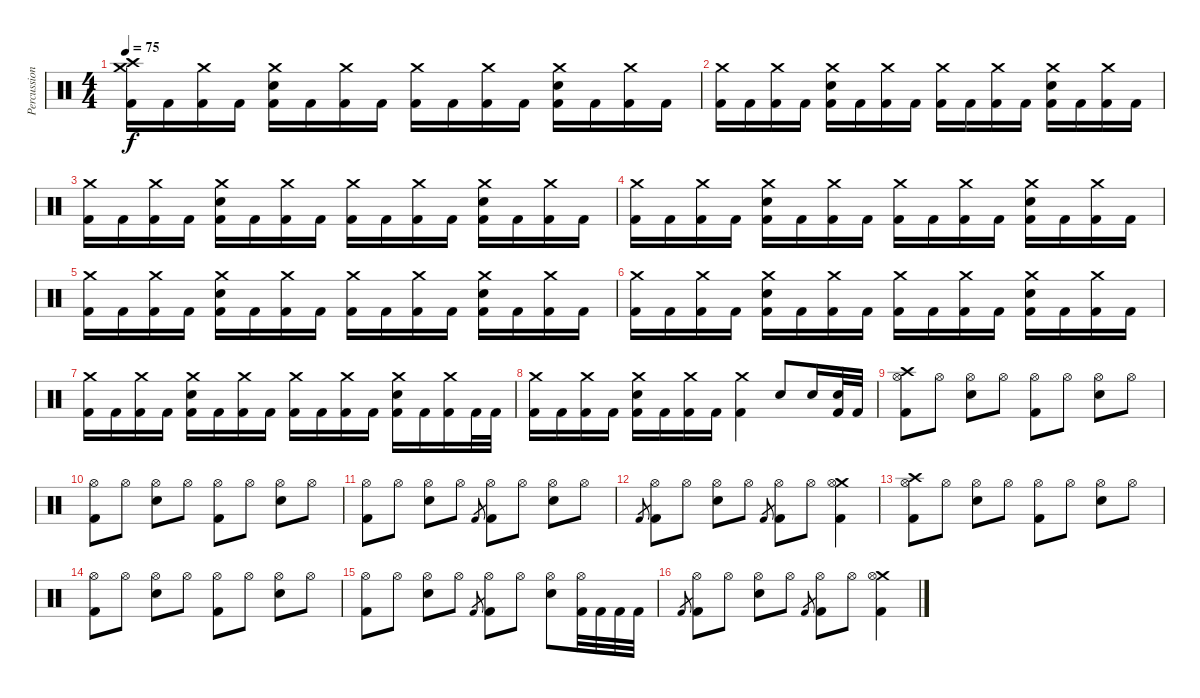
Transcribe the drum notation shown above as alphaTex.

\track ("Percussions" "Percussion") {instrument percussion}
\staff {score}
\articulation defaults
\ts (4 4)
\tempo 75
\clef neutral
\ks c
("Crash medium (hit)" "Crash high (hit)" "Kick (hit) 2").16{dy f} "Kick (hit) 2".16 ("Crash medium (hit)" "Kick (hit) 2").16 "Kick (hit) 2".16 ("Crash medium (hit)" "Snare (hit) 2" "Kick (hit) 2").16 "Kick (hit) 2".16 ("Crash medium (hit)" "Kick (hit) 2").16 "Kick (hit) 2".16 ("Crash medium (hit)" "Kick (hit) 2").16 "Kick (hit) 2".16 ("Crash medium (hit)" "Kick (hit) 2").16 "Kick (hit) 2".16 ("Crash medium (hit)" "Snare (hit) 2" "Kick (hit) 2").16 "Kick (hit) 2".16 ("Crash medium (hit)" "Kick (hit) 2").16 "Kick (hit) 2".16 |
("Crash medium (hit)" "Kick (hit) 2").16 "Kick (hit) 2".16 ("Crash medium (hit)" "Kick (hit) 2").16 "Kick (hit) 2".16 ("Crash medium (hit)" "Snare (hit) 2" "Kick (hit) 2").16 "Kick (hit) 2".16 ("Crash medium (hit)" "Kick (hit) 2").16 "Kick (hit) 2".16 ("Crash medium (hit)" "Kick (hit) 2").16 "Kick (hit) 2".16 ("Crash medium (hit)" "Kick (hit) 2").16 "Kick (hit) 2".16 ("Crash medium (hit)" "Snare (hit) 2" "Kick (hit) 2").16 "Kick (hit) 2".16 ("Crash medium (hit)" "Kick (hit) 2").16 "Kick (hit) 2".16 |
("Crash medium (hit)" "Kick (hit) 2").16 "Kick (hit) 2".16 ("Crash medium (hit)" "Kick (hit) 2").16 "Kick (hit) 2".16 ("Crash medium (hit)" "Snare (hit) 2" "Kick (hit) 2").16 "Kick (hit) 2".16 ("Crash medium (hit)" "Kick (hit) 2").16 "Kick (hit) 2".16 ("Crash medium (hit)" "Kick (hit) 2").16 "Kick (hit) 2".16 ("Crash medium (hit)" "Kick (hit) 2").16 "Kick (hit) 2".16 ("Crash medium (hit)" "Snare (hit) 2" "Kick (hit) 2").16 "Kick (hit) 2".16 ("Crash medium (hit)" "Kick (hit) 2").16 "Kick (hit) 2".16 |
("Crash medium (hit)" "Kick (hit) 2").16 "Kick (hit) 2".16 ("Crash medium (hit)" "Kick (hit) 2").16 "Kick (hit) 2".16 ("Crash medium (hit)" "Snare (hit) 2" "Kick (hit) 2").16 "Kick (hit) 2".16 ("Crash medium (hit)" "Kick (hit) 2").16 "Kick (hit) 2".16 ("Crash medium (hit)" "Kick (hit) 2").16 "Kick (hit) 2".16 ("Crash medium (hit)" "Kick (hit) 2").16 "Kick (hit) 2".16 ("Crash medium (hit)" "Snare (hit) 2" "Kick (hit) 2").16 "Kick (hit) 2".16 ("Crash medium (hit)" "Kick (hit) 2").16 "Kick (hit) 2".16 |
("Crash medium (hit)" "Kick (hit) 2").16 "Kick (hit) 2".16 ("Crash medium (hit)" "Kick (hit) 2").16 "Kick (hit) 2".16 ("Crash medium (hit)" "Snare (hit) 2" "Kick (hit) 2").16 "Kick (hit) 2".16 ("Crash medium (hit)" "Kick (hit) 2").16 "Kick (hit) 2".16 ("Crash medium (hit)" "Kick (hit) 2").16 "Kick (hit) 2".16 ("Crash medium (hit)" "Kick (hit) 2").16 "Kick (hit) 2".16 ("Crash medium (hit)" "Snare (hit) 2" "Kick (hit) 2").16 "Kick (hit) 2".16 ("Crash medium (hit)" "Kick (hit) 2").16 "Kick (hit) 2".16 |
("Crash medium (hit)" "Kick (hit) 2").16 "Kick (hit) 2".16 ("Crash medium (hit)" "Kick (hit) 2").16 "Kick (hit) 2".16 ("Crash medium (hit)" "Snare (hit) 2" "Kick (hit) 2").16 "Kick (hit) 2".16 ("Crash medium (hit)" "Kick (hit) 2").16 "Kick (hit) 2".16 ("Crash medium (hit)" "Kick (hit) 2").16 "Kick (hit) 2".16 ("Crash medium (hit)" "Kick (hit) 2").16 "Kick (hit) 2".16 ("Crash medium (hit)" "Snare (hit) 2" "Kick (hit) 2").16 "Kick (hit) 2".16 ("Crash medium (hit)" "Kick (hit) 2").16 "Kick (hit) 2".16 |
("Crash medium (hit)" "Kick (hit) 2").16 "Kick (hit) 2".16 ("Crash medium (hit)" "Kick (hit) 2").16 "Kick (hit) 2".16 ("Crash medium (hit)" "Snare (hit) 2" "Kick (hit) 2").16 "Kick (hit) 2".16 ("Crash medium (hit)" "Kick (hit) 2").16 "Kick (hit) 2".16 ("Crash medium (hit)" "Kick (hit) 2").16 "Kick (hit) 2".16 ("Crash medium (hit)" "Kick (hit) 2").16 "Kick (hit) 2".16 ("Crash medium (hit)" "Snare (hit) 2" "Kick (hit) 2").16 "Kick (hit) 2".16 ("Crash medium (hit)" "Kick (hit) 2").16 "Kick (hit) 2".32 "Kick (hit) 2".32 |
("Crash medium (hit)" "Kick (hit) 2").16 "Kick (hit) 2".16 ("Crash medium (hit)" "Kick (hit) 2").16 "Kick (hit) 2".16 ("Crash medium (hit)" "Snare (hit) 2" "Kick (hit) 2").16 "Kick (hit) 2".16 ("Crash medium (hit)" "Kick (hit) 2").16 "Kick (hit) 2".16 ("Crash medium (hit)" "Kick (hit) 2").4 "Snare (hit) 2".8 "Snare (hit) 2".16 ("Snare (hit) 2" "Kick (hit) 2").32 "Kick (hit) 2".32 |
("Crash high (hit)" "Hi-Hat (open)" "Kick (hit) 2").8 "Hi-Hat (open)".8 ("Hi-Hat (open)" "Snare (hit) 2").8 "Hi-Hat (open)".8 ("Hi-Hat (open)" "Kick (hit) 2").8 "Hi-Hat (open)".8 ("Hi-Hat (open)" "Snare (hit) 2").8 "Hi-Hat (open)".8 |
("Hi-Hat (open)" "Kick (hit) 2").8 "Hi-Hat (open)".8 ("Hi-Hat (open)" "Snare (hit) 2").8 "Hi-Hat (open)".8 ("Hi-Hat (open)" "Kick (hit) 2").8 "Hi-Hat (open)".8 ("Hi-Hat (open)" "Snare (hit) 2").8 "Hi-Hat (open)".8 |
("Hi-Hat (open)" "Kick (hit) 2").8 "Hi-Hat (open)".8 ("Hi-Hat (open)" "Snare (hit) 2").8 "Hi-Hat (open)".8 "Kick (hit) 2".8{gr} ("Hi-Hat (open)" "Kick (hit) 2").8 "Hi-Hat (open)".8 ("Hi-Hat (open)" "Snare (hit) 2").8 "Hi-Hat (open)".8 |
"Kick (hit) 2".8{gr} ("Hi-Hat (open)" "Kick (hit) 2").8 "Hi-Hat (open)".8 ("Hi-Hat (open)" "Snare (hit) 2").8 "Hi-Hat (open)".8 "Kick (hit) 2".8{gr} ("Hi-Hat (open)" "Kick (hit) 2").8 "Hi-Hat (open)".8 ("Crash medium (hit)" "Hi-Hat (open)" "Kick (hit) 2").4 |
("Crash high (hit)" "Hi-Hat (open)" "Kick (hit) 2").8 "Hi-Hat (open)".8 ("Hi-Hat (open)" "Snare (hit) 2").8 "Hi-Hat (open)".8 ("Hi-Hat (open)" "Kick (hit) 2").8 "Hi-Hat (open)".8 ("Hi-Hat (open)" "Snare (hit) 2").8 "Hi-Hat (open)".8 |
("Hi-Hat (open)" "Kick (hit) 2").8 "Hi-Hat (open)".8 ("Hi-Hat (open)" "Snare (hit) 2").8 "Hi-Hat (open)".8 ("Hi-Hat (open)" "Kick (hit) 2").8 "Hi-Hat (open)".8 ("Hi-Hat (open)" "Snare (hit) 2").8 "Hi-Hat (open)".8 |
("Hi-Hat (open)" "Kick (hit) 2").8 "Hi-Hat (open)".8 ("Hi-Hat (open)" "Snare (hit) 2").8 "Hi-Hat (open)".8 "Kick (hit) 2".8{gr} ("Hi-Hat (open)" "Kick (hit) 2").8 "Hi-Hat (open)".8 ("Hi-Hat (open)" "Snare (hit) 2").8 ("Hi-Hat (open)" "Kick (hit) 2").32 "Kick (hit) 2".32 "Kick (hit) 2".32 "Kick (hit) 2".32 |
"Kick (hit) 2".8{gr} ("Hi-Hat (open)" "Kick (hit) 2").8 "Hi-Hat (open)".8 ("Hi-Hat (open)" "Snare (hit) 2").8 "Hi-Hat (open)".8 "Kick (hit) 2".8{gr} ("Hi-Hat (open)" "Kick (hit) 2").8 "Hi-Hat (open)".8 ("Crash medium (hit)" "Hi-Hat (open)" "Kick (hit) 2").4
